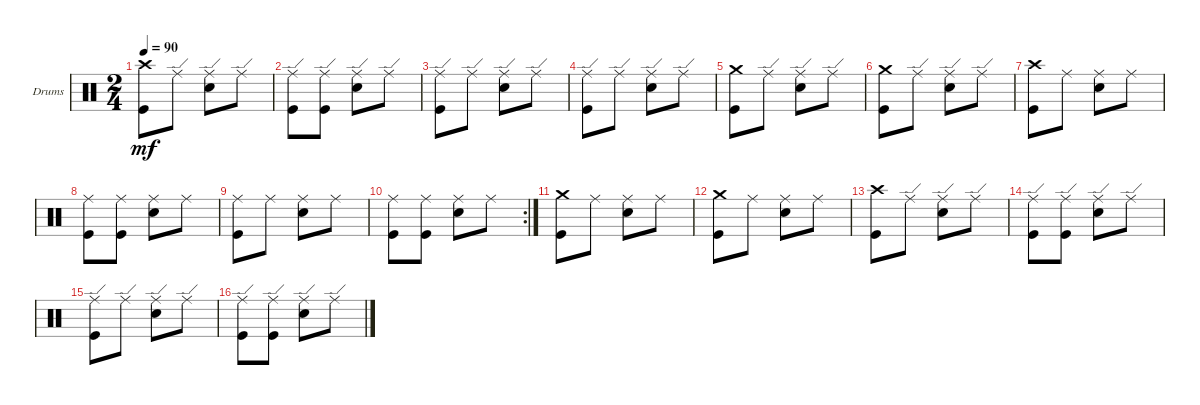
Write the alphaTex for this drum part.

\bracketExtendMode groupsimilarinstruments
\firstSystemTrackNameOrientation horizontal
\otherSystemsTrackNameOrientation horizontal
\track ("Drumkit" "Drums") {instrument percussion}
\staff {score}
\articulation defaults
\ts (2 4)
\tempo 90
\clef neutral
\scale
0.333333
\ks c
("Crash high (hit)" "Kick (hit)").8{dy mf} "Ride (edge)".8 ("Ride (edge)" "Snare (hit) 2").8 "Ride (edge)".8 |
\scale
0.333333 ("Ride (edge)" "Kick (hit)").8 ("Ride (edge)" "Kick (hit)").8 ("Ride (edge)" "Snare (hit) 2").8 "Ride (edge)".8 |
\scale
0.333333 ("Ride (edge)" "Kick (hit)").8 "Ride (edge)".8 ("Ride (edge)" "Snare (hit) 2").8 "Ride (edge)".8 |
\scale
0.333333 ("Ride (edge)" "Kick (hit)").8 "Ride (edge)".8 ("Ride (edge)" "Snare (hit) 2").8 "Ride (edge)".8 |
\scale
0.333333 ("Kick (hit)" "Crash medium (hit)").8 "Ride (edge)".8 ("Ride (edge)" "Snare (hit) 2").8 "Ride (edge)".8 |
\scale
0.333333 ("Kick (hit)" "Crash medium (hit)").8 "Ride (edge)".8 ("Ride (edge)" "Snare (hit) 2").8 "Ride (edge)".8 |
\scale
0.333333 ("Kick (hit)" "Crash high (hit)").8 "Ride (middle)".8 ("Snare (hit) 2" "Ride (middle)").8 "Ride (middle)".8 |
\scale
0.333333 ("Kick (hit)" "Ride (middle)").8 ("Kick (hit)" "Ride (middle)").8 ("Snare (hit) 2" "Ride (middle)").8 "Ride (middle)".8 |
\scale
0.322034 ("Kick (hit)" "Ride (middle)").8 "Ride (middle)".8 ("Snare (hit) 2" "Ride (middle)").8 "Ride (middle)".8 |
\rc 2
\scale
0.355932 ("Kick (hit)" "Ride (middle)").8 ("Kick (hit)" "Ride (middle)").8 ("Snare (hit) 2" "Ride (middle)").8 "Ride (middle)".8 |
\scale
0.322034 ("Kick (hit)" "Crash medium (hit)").8 "Ride (middle)".8 ("Snare (hit) 2" "Ride (middle)").8 "Ride (middle)".8 |
\scale
0.333333 ("Kick (hit)" "Crash medium (hit)").8 "Ride (middle)".8 ("Snare (hit) 2" "Ride (middle)").8 "Ride (middle)".8 |
\scale
0.333333 ("Crash high (hit)" "Kick (hit)").8 "Ride (edge)".8 ("Ride (edge)" "Snare (hit) 2").8 "Ride (edge)".8 |
\scale
0.333333 ("Ride (edge)" "Kick (hit)").8 ("Ride (edge)" "Kick (hit)").8 ("Ride (edge)" "Snare (hit) 2").8 "Ride (edge)".8 |
\scale
0.333333 ("Ride (edge)" "Kick (hit)").8 "Ride (edge)".8 ("Ride (edge)" "Snare (hit) 2").8 "Ride (edge)".8 |
\scale
0.333333 ("Ride (edge)" "Kick (hit)").8 ("Ride (edge)" "Kick (hit)").8 ("Ride (edge)" "Snare (hit) 2").8 "Ride (edge)".8
